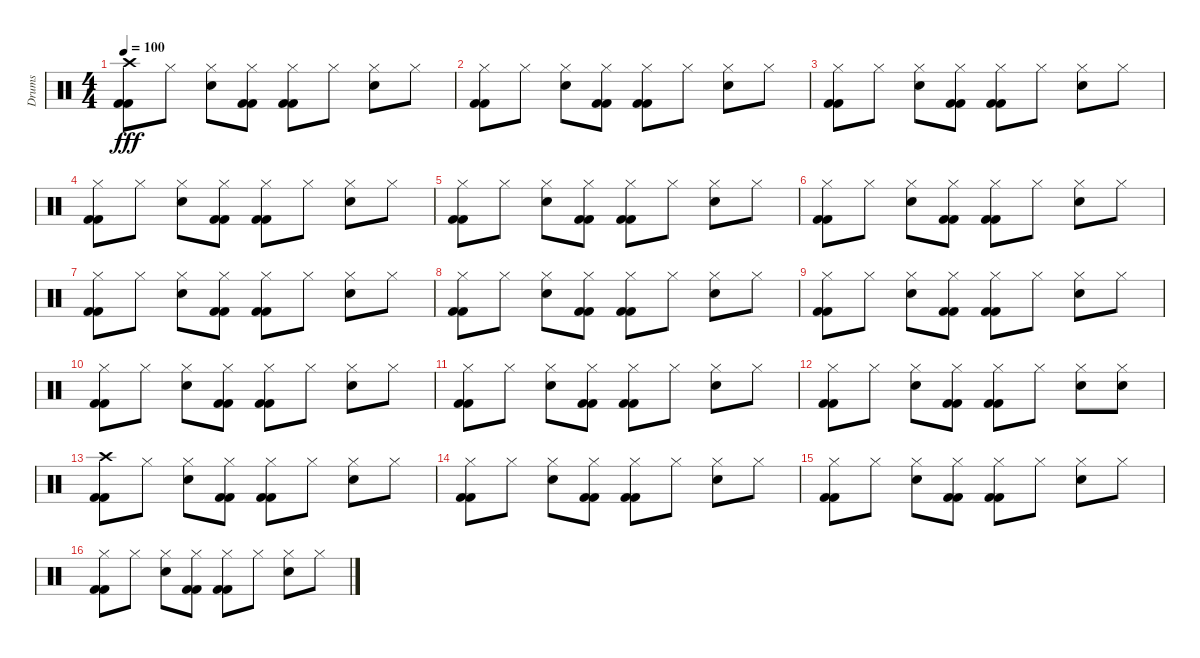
\track ("Drums" "Drums") {instrument percussion}
\staff {score}
\articulation defaults
\ts (4 4)
\tempo 100
\clef neutral
\ks c
("Crash high (hit)" "Kick (hit) 2" "Kick (hit) 2").8{dy fff} "Hi-Hat (closed)".8 ("Hi-Hat (closed)" "Electric Snare (hit)").8 ("Hi-Hat (closed)" "Kick (hit) 2" "Kick (hit) 2").8 ("Hi-Hat (closed)" "Kick (hit) 2" "Kick (hit) 2").8 "Hi-Hat (closed)".8 ("Hi-Hat (closed)" "Electric Snare (hit)").8 "Hi-Hat (closed)".8 |
("Hi-Hat (closed)" "Kick (hit) 2" "Kick (hit) 2").8 "Hi-Hat (closed)".8 ("Hi-Hat (closed)" "Electric Snare (hit)").8 ("Hi-Hat (closed)" "Kick (hit) 2" "Kick (hit) 2").8 ("Hi-Hat (closed)" "Kick (hit) 2" "Kick (hit) 2").8 "Hi-Hat (closed)".8 ("Hi-Hat (closed)" "Electric Snare (hit)").8 "Hi-Hat (closed)".8 |
("Hi-Hat (closed)" "Kick (hit) 2" "Kick (hit) 2").8 "Hi-Hat (closed)".8 ("Hi-Hat (closed)" "Electric Snare (hit)").8 ("Hi-Hat (closed)" "Kick (hit) 2" "Kick (hit) 2").8 ("Hi-Hat (closed)" "Kick (hit) 2" "Kick (hit) 2").8 "Hi-Hat (closed)".8 ("Hi-Hat (closed)" "Electric Snare (hit)").8 "Hi-Hat (closed)".8 |
("Hi-Hat (closed)" "Kick (hit) 2" "Kick (hit) 2").8 "Hi-Hat (closed)".8 ("Hi-Hat (closed)" "Electric Snare (hit)").8 ("Hi-Hat (closed)" "Kick (hit) 2" "Kick (hit) 2").8 ("Hi-Hat (closed)" "Kick (hit) 2" "Kick (hit) 2").8 "Hi-Hat (closed)".8 ("Hi-Hat (closed)" "Electric Snare (hit)").8 "Hi-Hat (closed)".8 |
("Hi-Hat (closed)" "Kick (hit) 2" "Kick (hit) 2").8 "Hi-Hat (closed)".8 ("Hi-Hat (closed)" "Electric Snare (hit)").8 ("Hi-Hat (closed)" "Kick (hit) 2" "Kick (hit) 2").8 ("Hi-Hat (closed)" "Kick (hit) 2" "Kick (hit) 2").8 "Hi-Hat (closed)".8 ("Hi-Hat (closed)" "Electric Snare (hit)").8 "Hi-Hat (closed)".8 |
("Hi-Hat (closed)" "Kick (hit) 2" "Kick (hit) 2").8 "Hi-Hat (closed)".8 ("Hi-Hat (closed)" "Electric Snare (hit)").8 ("Hi-Hat (closed)" "Kick (hit) 2" "Kick (hit) 2").8 ("Hi-Hat (closed)" "Kick (hit) 2" "Kick (hit) 2").8 "Hi-Hat (closed)".8 ("Hi-Hat (closed)" "Electric Snare (hit)").8 "Hi-Hat (closed)".8 |
("Hi-Hat (closed)" "Kick (hit) 2" "Kick (hit) 2").8 "Hi-Hat (closed)".8 ("Hi-Hat (closed)" "Electric Snare (hit)").8 ("Hi-Hat (closed)" "Kick (hit) 2" "Kick (hit) 2").8 ("Hi-Hat (closed)" "Kick (hit) 2" "Kick (hit) 2").8 "Hi-Hat (closed)".8 ("Hi-Hat (closed)" "Electric Snare (hit)").8 "Hi-Hat (closed)".8 |
("Hi-Hat (closed)" "Kick (hit) 2" "Kick (hit) 2").8 "Hi-Hat (closed)".8 ("Hi-Hat (closed)" "Electric Snare (hit)").8 ("Hi-Hat (closed)" "Kick (hit) 2" "Kick (hit) 2").8 ("Hi-Hat (closed)" "Kick (hit) 2" "Kick (hit) 2").8 "Hi-Hat (closed)".8 ("Hi-Hat (closed)" "Electric Snare (hit)").8 "Hi-Hat (closed)".8 |
("Hi-Hat (closed)" "Kick (hit) 2" "Kick (hit) 2").8 "Hi-Hat (closed)".8 ("Hi-Hat (closed)" "Electric Snare (hit)").8 ("Hi-Hat (closed)" "Kick (hit) 2" "Kick (hit) 2").8 ("Hi-Hat (closed)" "Kick (hit) 2" "Kick (hit) 2").8 "Hi-Hat (closed)".8 ("Hi-Hat (closed)" "Electric Snare (hit)").8 "Hi-Hat (closed)".8 |
("Hi-Hat (closed)" "Kick (hit) 2" "Kick (hit) 2").8 "Hi-Hat (closed)".8 ("Hi-Hat (closed)" "Electric Snare (hit)").8 ("Hi-Hat (closed)" "Kick (hit) 2" "Kick (hit) 2").8 ("Hi-Hat (closed)" "Kick (hit) 2" "Kick (hit) 2").8 "Hi-Hat (closed)".8 ("Hi-Hat (closed)" "Electric Snare (hit)").8 "Hi-Hat (closed)".8 |
("Hi-Hat (closed)" "Kick (hit) 2" "Kick (hit) 2").8 "Hi-Hat (closed)".8 ("Hi-Hat (closed)" "Electric Snare (hit)").8 ("Hi-Hat (closed)" "Kick (hit) 2" "Kick (hit) 2").8 ("Hi-Hat (closed)" "Kick (hit) 2" "Kick (hit) 2").8 "Hi-Hat (closed)".8 ("Hi-Hat (closed)" "Electric Snare (hit)").8 "Hi-Hat (closed)".8 |
("Hi-Hat (closed)" "Kick (hit) 2" "Kick (hit) 2").8 "Hi-Hat (closed)".8 ("Hi-Hat (closed)" "Electric Snare (hit)").8 ("Hi-Hat (closed)" "Kick (hit) 2" "Kick (hit) 2").8 ("Hi-Hat (closed)" "Kick (hit) 2" "Kick (hit) 2").8 "Hi-Hat (closed)".8 ("Hi-Hat (closed)" "Electric Snare (hit)").8 ("Hi-Hat (closed)" "Electric Snare (hit)").8 |
("Crash high (hit)" "Kick (hit) 2" "Kick (hit) 2").8 "Hi-Hat (closed)".8 ("Hi-Hat (closed)" "Electric Snare (hit)").8 ("Hi-Hat (closed)" "Kick (hit) 2" "Kick (hit) 2").8 ("Hi-Hat (closed)" "Kick (hit) 2" "Kick (hit) 2").8 "Hi-Hat (closed)".8 ("Hi-Hat (closed)" "Electric Snare (hit)").8 "Hi-Hat (closed)".8 |
("Hi-Hat (closed)" "Kick (hit) 2" "Kick (hit) 2").8 "Hi-Hat (closed)".8 ("Hi-Hat (closed)" "Electric Snare (hit)").8 ("Hi-Hat (closed)" "Kick (hit) 2" "Kick (hit) 2").8 ("Hi-Hat (closed)" "Kick (hit) 2" "Kick (hit) 2").8 "Hi-Hat (closed)".8 ("Hi-Hat (closed)" "Electric Snare (hit)").8 "Hi-Hat (closed)".8 |
("Hi-Hat (closed)" "Kick (hit) 2" "Kick (hit) 2").8 "Hi-Hat (closed)".8 ("Hi-Hat (closed)" "Electric Snare (hit)").8 ("Hi-Hat (closed)" "Kick (hit) 2" "Kick (hit) 2").8 ("Hi-Hat (closed)" "Kick (hit) 2" "Kick (hit) 2").8 "Hi-Hat (closed)".8 ("Hi-Hat (closed)" "Electric Snare (hit)").8 "Hi-Hat (closed)".8 |
("Hi-Hat (closed)" "Kick (hit) 2" "Kick (hit) 2").8 "Hi-Hat (closed)".8 ("Hi-Hat (closed)" "Electric Snare (hit)").8 ("Hi-Hat (closed)" "Kick (hit) 2" "Kick (hit) 2").8 ("Hi-Hat (closed)" "Kick (hit) 2" "Kick (hit) 2").8 "Hi-Hat (closed)".8 ("Hi-Hat (closed)" "Electric Snare (hit)").8 "Hi-Hat (closed)".8
